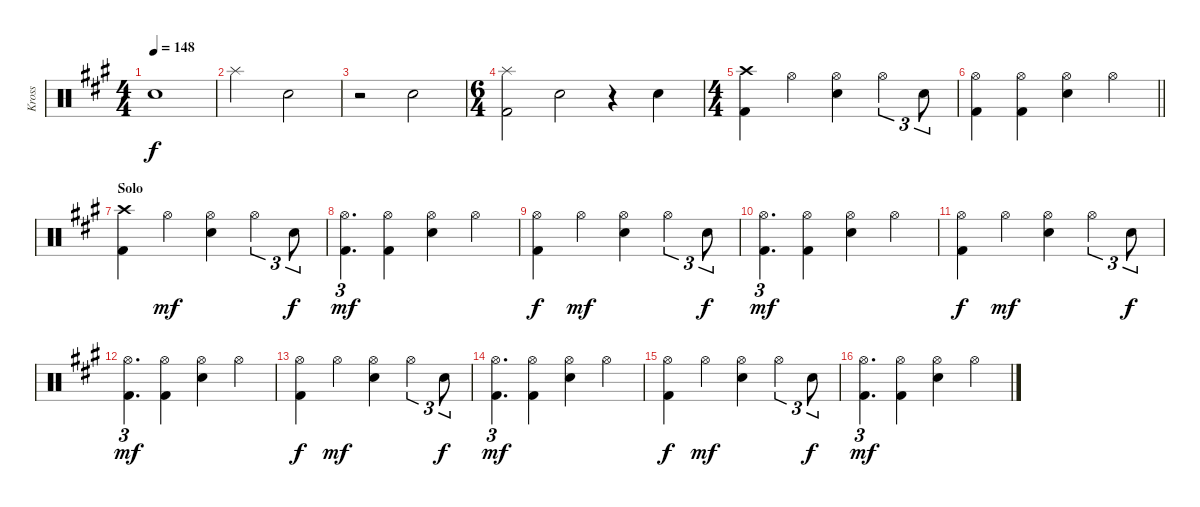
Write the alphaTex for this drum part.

\track ("Kross" "Kross") {instrument percussion}
\staff {score}
\articulation defaults
\ts (4 4)
\tempo 148
\clef neutral
\ks a "Electric Snare (hit)".1{dy f}
|
"Splash (hit)".2 "Electric Snare (hit)".2 |
r.2 "Electric Snare (hit)".2 |
\ts (6 4)
("Splash (hit)" "Kick (hit) 2").2 "Electric Snare (hit)".2 r.4 "Electric Snare (hit)".4 |
\ts (4 4)
("Crash high (hit)" "Kick (hit) 2").4 "Hi-Hat (open)".4 ("Hi-Hat (open)" "Electric Snare (hit)").4 "Hi-Hat (open)".4{tu (3 2)} "Electric Snare (hit)".8{tu (3 2)} |
\barLineRight lightlight
("Hi-Hat (open)" "Kick (hit) 2").4 ("Hi-Hat (open)" "Kick (hit) 2").4 ("Hi-Hat (open)" "Electric Snare (hit)").4 "Hi-Hat (open)".4 |
\section ("" "Solo")
("Crash high (hit)" "Kick (hit) 2").4 "Hi-Hat (open)".4{dy mf} ("Hi-Hat (open)" "Electric Snare (hit)").4 "Hi-Hat (open)".4{tu (3 2)} "Electric Snare (hit)".8{tu (3 2) dy f} |
("Hi-Hat (open)" "Kick (hit) 2").4{d tu (3 2) dy mf} ("Hi-Hat (open)" "Kick (hit) 2").4 ("Hi-Hat (open)" "Electric Snare (hit)").4 "Hi-Hat (open)".4 |
("Hi-Hat (open)" "Kick (hit) 2").4{dy f} "Hi-Hat (open)".4{dy mf} ("Hi-Hat (open)" "Electric Snare (hit)").4 "Hi-Hat (open)".4{tu (3 2)} "Electric Snare (hit)".8{tu (3 2) dy f} |
("Hi-Hat (open)" "Kick (hit) 2").4{d tu (3 2) dy mf} ("Hi-Hat (open)" "Kick (hit) 2").4 ("Hi-Hat (open)" "Electric Snare (hit)").4 "Hi-Hat (open)".4 |
("Hi-Hat (open)" "Kick (hit) 2").4{dy f} "Hi-Hat (open)".4{dy mf} ("Hi-Hat (open)" "Electric Snare (hit)").4 "Hi-Hat (open)".4{tu (3 2)} "Electric Snare (hit)".8{tu (3 2) dy f} |
("Hi-Hat (open)" "Kick (hit) 2").4{d tu (3 2) dy mf} ("Hi-Hat (open)" "Kick (hit) 2").4 ("Hi-Hat (open)" "Electric Snare (hit)").4 "Hi-Hat (open)".4 |
("Hi-Hat (open)" "Kick (hit) 2").4{dy f} "Hi-Hat (open)".4{dy mf} ("Hi-Hat (open)" "Electric Snare (hit)").4 "Hi-Hat (open)".4{tu (3 2)} "Electric Snare (hit)".8{tu (3 2) dy f} |
("Hi-Hat (open)" "Kick (hit) 2").4{d tu (3 2) dy mf} ("Hi-Hat (open)" "Kick (hit) 2").4 ("Hi-Hat (open)" "Electric Snare (hit)").4 "Hi-Hat (open)".4 |
("Hi-Hat (open)" "Kick (hit) 2").4{dy f} "Hi-Hat (open)".4{dy mf} ("Hi-Hat (open)" "Electric Snare (hit)").4 "Hi-Hat (open)".4{tu (3 2)} "Electric Snare (hit)".8{tu (3 2) dy f} |
("Hi-Hat (open)" "Kick (hit) 2").4{d tu (3 2) dy mf} ("Hi-Hat (open)" "Kick (hit) 2").4 ("Hi-Hat (open)" "Electric Snare (hit)").4 "Hi-Hat (open)".4
